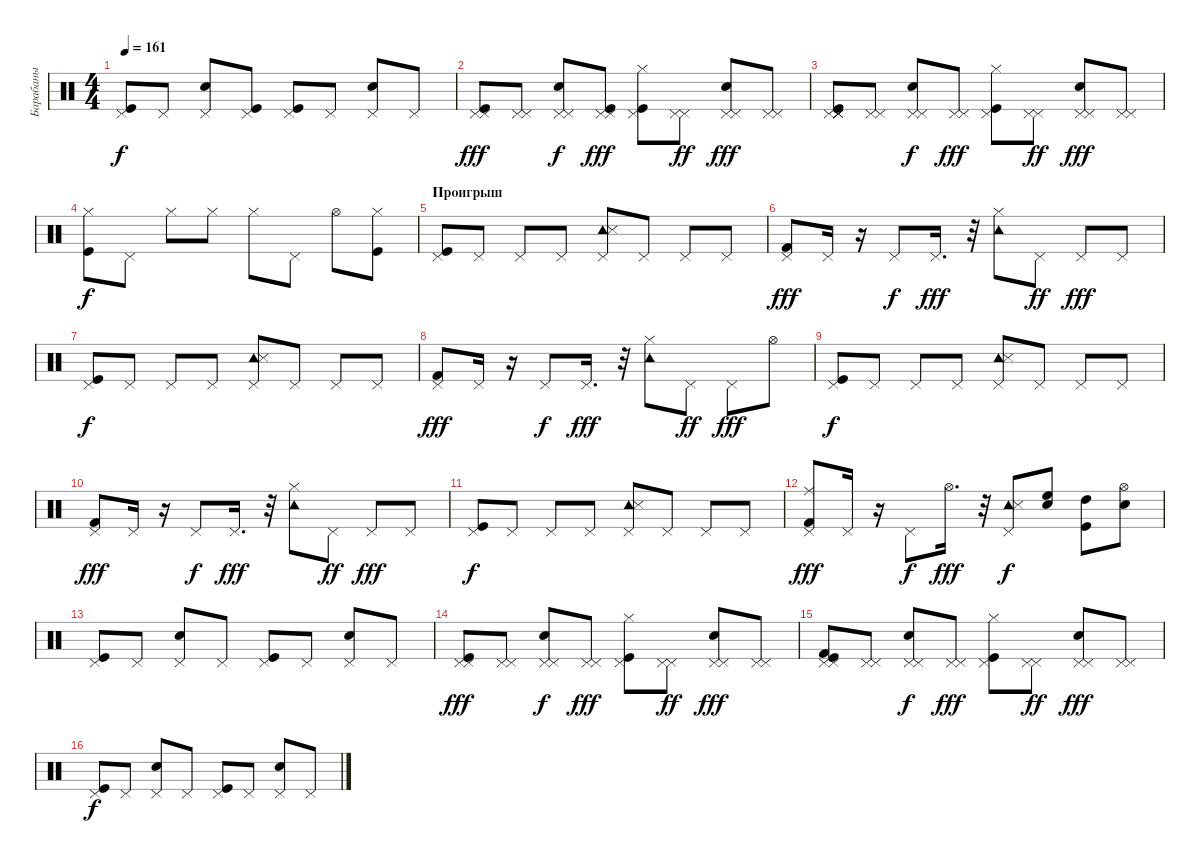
\track ("Барабаны" "Барабаны") {instrument percussion}
\staff {score}
\articulation defaults
\ts (4 4)
\tempo 161
\clef neutral
\ks c
("Kick (hit)" "Pedal Hi-Hat (hit)").8{dy f} "Pedal Hi-Hat (hit)".8 ("Snare (hit) 2" "Pedal Hi-Hat (hit)").8 ("Kick (hit)" "Pedal Hi-Hat (hit)").8 ("Kick (hit)" "Pedal Hi-Hat (hit)").8 "Pedal Hi-Hat (hit)".8 ("Snare (hit) 2" "Pedal Hi-Hat (hit)").8 "Pedal Hi-Hat (hit)".8 |
("Pedal Hi-Hat (hit)" "Kick (hit)" "Pedal Hi-Hat (hit)").8{dy fff} ("Pedal Hi-Hat (hit)" "Pedal Hi-Hat (hit)").8 ("Snare (hit) 2" "Pedal Hi-Hat (hit)" "Pedal Hi-Hat (hit)").8{dy f} ("Kick (hit)" "Pedal Hi-Hat (hit)" "Pedal Hi-Hat (hit)").8{dy fff} ("Kick (hit)" "Hi-Hat (closed)" "Pedal Hi-Hat (hit)").8 ("Pedal Hi-Hat (hit)" "Pedal Hi-Hat (hit)").8{dy ff} ("Snare (hit) 2" "Pedal Hi-Hat (hit)" "Pedal Hi-Hat (hit)").8{dy fff} ("Pedal Hi-Hat (hit)" "Pedal Hi-Hat (hit)").8 |
("Pedal Hi-Hat (hit)" "Pedal Hi-Hat (hit)" "Pedal Hi-Hat (hit)" "Kick (hit)" "Pedal Hi-Hat (hit)").8 ("Pedal Hi-Hat (hit)" "Pedal Hi-Hat (hit)").8 ("Snare (hit) 2" "Pedal Hi-Hat (hit)" "Pedal Hi-Hat (hit)").8{dy f} ("Pedal Hi-Hat (hit)" "Pedal Hi-Hat (hit)").8{dy fff} ("Kick (hit)" "Pedal Hi-Hat (hit)" "Hi-Hat (closed)").8 ("Pedal Hi-Hat (hit)" "Pedal Hi-Hat (hit)").8{dy ff} ("Snare (hit) 2" "Pedal Hi-Hat (hit)" "Pedal Hi-Hat (hit)").8{dy fff} ("Pedal Hi-Hat (hit)" "Pedal Hi-Hat (hit)").8 |
("Kick (hit)" "Hi-Hat (closed)").8{dy f} "Pedal Hi-Hat (hit)".8 "Hi-Hat (closed)".8 "Hi-Hat (closed)".8 "Hi-Hat (closed)".8 "Pedal Hi-Hat (hit)".8 "Hi-Hat (open)".8 ("Kick (hit)" "Hi-Hat (closed)").8 |
\section ("" "Проигрыш")
("Kick (hit)" "Pedal Hi-Hat (hit)").8 "Pedal Hi-Hat (hit)".8 "Pedal Hi-Hat (hit)".8 "Pedal Hi-Hat (hit)".8 ("Tambourine (hit)" "Snare (side stick) 3" "Pedal Hi-Hat (hit)").8 "Pedal Hi-Hat (hit)".8 "Pedal Hi-Hat (hit)".8 "Pedal Hi-Hat (hit)".8 |
("Kick (hit) 2" "Pedal Hi-Hat (hit)").8{dy fff} "Pedal Hi-Hat (hit)".16 r.16 "Pedal Hi-Hat (hit)".8{dy f} "Pedal Hi-Hat (hit)".16{d dy fff} r.32 ("Tambourine (hit)" "Hi-Hat (closed)").8 "Pedal Hi-Hat (hit)".8{dy ff} "Pedal Hi-Hat (hit)".8{dy fff} "Pedal Hi-Hat (hit)".8 |
("Pedal Hi-Hat (hit)" "Kick (hit)").8{dy f} "Pedal Hi-Hat (hit)".8 "Pedal Hi-Hat (hit)".8 "Pedal Hi-Hat (hit)".8 ("Tambourine (hit)" "Snare (side stick) 3" "Pedal Hi-Hat (hit)").8 "Pedal Hi-Hat (hit)".8 "Pedal Hi-Hat (hit)".8 "Pedal Hi-Hat (hit)".8 |
("Kick (hit) 2" "Pedal Hi-Hat (hit)").8{dy fff} "Pedal Hi-Hat (hit)".16 r.16 "Pedal Hi-Hat (hit)".8{dy f} "Pedal Hi-Hat (hit)".16{d dy fff} r.32 ("Tambourine (hit)" "Hi-Hat (closed)").8 "Pedal Hi-Hat (hit)".8{dy ff} "Pedal Hi-Hat (hit)".8{dy fff} "Hi-Hat (open)".8 |
("Pedal Hi-Hat (hit)" "Kick (hit)").8{dy f} "Pedal Hi-Hat (hit)".8 "Pedal Hi-Hat (hit)".8 "Pedal Hi-Hat (hit)".8 ("Tambourine (hit)" "Snare (side stick) 3" "Pedal Hi-Hat (hit)").8 "Pedal Hi-Hat (hit)".8 "Pedal Hi-Hat (hit)".8 "Pedal Hi-Hat (hit)".8 |
("Kick (hit) 2" "Pedal Hi-Hat (hit)").8{dy fff} "Pedal Hi-Hat (hit)".16 r.16 "Pedal Hi-Hat (hit)".8{dy f} "Pedal Hi-Hat (hit)".16{d dy fff} r.32 ("Tambourine (hit)" "Hi-Hat (closed)").8 "Pedal Hi-Hat (hit)".8{dy ff} "Pedal Hi-Hat (hit)".8{dy fff} "Pedal Hi-Hat (hit)".8 |
("Kick (hit)" "Pedal Hi-Hat (hit)").8{dy f} "Pedal Hi-Hat (hit)".8 "Pedal Hi-Hat (hit)".8 "Pedal Hi-Hat (hit)".8 ("Tambourine (hit)" "Snare (side stick) 3" "Pedal Hi-Hat (hit)").8 "Pedal Hi-Hat (hit)".8 "Pedal Hi-Hat (hit)".8 "Pedal Hi-Hat (hit)".8 |
("Ride (middle)" "Kick (hit) 2" "Pedal Hi-Hat (hit)").8{dy fff} "Pedal Hi-Hat (hit)".16 r.16 "Pedal Hi-Hat (hit)".8{dy f} "Hi-Hat (open)".16{d dy fff} r.32 ("Tambourine (hit)" "Snare (side stick) 3" "Pedal Hi-Hat (hit)").8{dy f} ("Snare (hit) 2" "High Floor Tom (hit)").8 ("Kick (hit)" "High Tom (hit)").8 ("Snare (hit) 2" "Hi-Hat (open)").8 |
("Kick (hit)" "Pedal Hi-Hat (hit)").8 "Pedal Hi-Hat (hit)".8 ("Snare (hit) 2" "Pedal Hi-Hat (hit)").8 "Pedal Hi-Hat (hit)".8 ("Kick (hit)" "Pedal Hi-Hat (hit)").8 "Pedal Hi-Hat (hit)".8 ("Snare (hit) 2" "Pedal Hi-Hat (hit)").8 "Pedal Hi-Hat (hit)".8 |
("Pedal Hi-Hat (hit)" "Kick (hit)" "Pedal Hi-Hat (hit)").8{dy fff} ("Pedal Hi-Hat (hit)" "Pedal Hi-Hat (hit)").8 ("Snare (hit) 2" "Pedal Hi-Hat (hit)" "Pedal Hi-Hat (hit)").8{dy f} ("Pedal Hi-Hat (hit)" "Pedal Hi-Hat (hit)").8{dy fff} ("Kick (hit)" "Hi-Hat (closed)" "Pedal Hi-Hat (hit)").8 ("Pedal Hi-Hat (hit)" "Pedal Hi-Hat (hit)").8{dy ff} ("Snare (hit) 2" "Pedal Hi-Hat (hit)" "Pedal Hi-Hat (hit)").8{dy fff} ("Pedal Hi-Hat (hit)" "Pedal Hi-Hat (hit)").8 |
("Pedal Hi-Hat (hit)" "Pedal Hi-Hat (hit)" "Kick (hit)" "Kick (hit) 2").8 ("Pedal Hi-Hat (hit)" "Pedal Hi-Hat (hit)").8 ("Snare (hit) 2" "Pedal Hi-Hat (hit)" "Pedal Hi-Hat (hit)").8{dy f} ("Pedal Hi-Hat (hit)" "Pedal Hi-Hat (hit)").8{dy fff} ("Kick (hit)" "Pedal Hi-Hat (hit)" "Hi-Hat (closed)").8 ("Pedal Hi-Hat (hit)" "Pedal Hi-Hat (hit)").8{dy ff} ("Snare (hit) 2" "Pedal Hi-Hat (hit)" "Pedal Hi-Hat (hit)").8{dy fff} ("Pedal Hi-Hat (hit)" "Pedal Hi-Hat (hit)").8 |
("Kick (hit)" "Pedal Hi-Hat (hit)").8{dy f} "Pedal Hi-Hat (hit)".8 ("Snare (hit) 2" "Pedal Hi-Hat (hit)").8 "Pedal Hi-Hat (hit)".8 ("Kick (hit)" "Pedal Hi-Hat (hit)").8 "Pedal Hi-Hat (hit)".8 ("Snare (hit) 2" "Pedal Hi-Hat (hit)").8 "Pedal Hi-Hat (hit)".8
